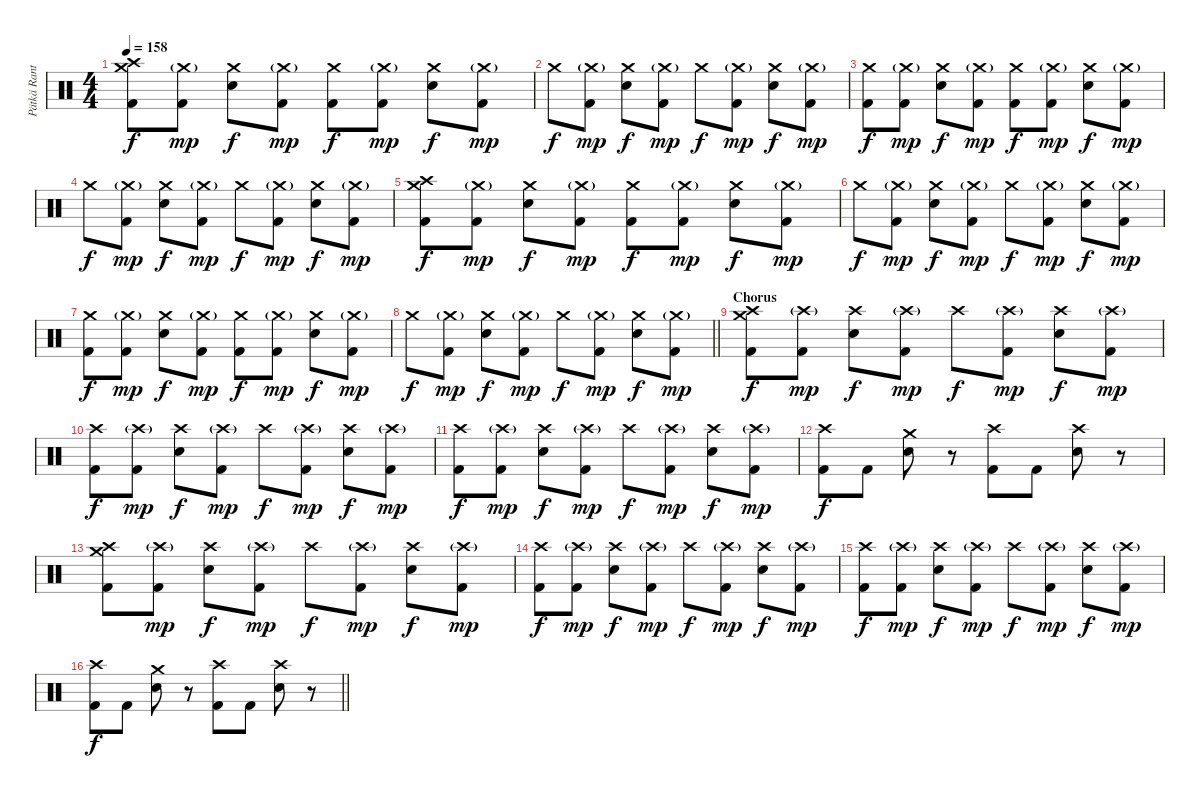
\track ("Pätkä Rantala (Drums)" "Pätkä Rant") {instrument percussion}
\staff {score}
\articulation defaults
\ts (4 4)
\tempo 158
\clef neutral
\ks c
("Crash high (hit)" "Crash medium (hit)" "Kick (hit) 2").8{dy f} ("Crash medium (hit)"{g} "Kick (hit) 2").8{dy mp} ("Crash medium (hit)" "Snare (hit) 2").8{dy f} ("Crash medium (hit)"{g} "Kick (hit) 2").8{dy mp} ("Crash medium (hit)" "Kick (hit) 2").8{dy f} ("Crash medium (hit)"{g} "Kick (hit) 2").8{dy mp} ("Crash medium (hit)" "Snare (hit) 2").8{dy f} ("Crash medium (hit)"{g} "Kick (hit) 2").8{dy mp} |
"Crash medium (hit)".8{dy f} ("Crash medium (hit)"{g} "Kick (hit) 2").8{dy mp} ("Crash medium (hit)" "Snare (hit) 2").8{dy f} ("Crash medium (hit)"{g} "Kick (hit) 2").8{dy mp} "Crash medium (hit)".8{dy f} ("Crash medium (hit)"{g} "Kick (hit) 2").8{dy mp} ("Crash medium (hit)" "Snare (hit) 2").8{dy f} ("Crash medium (hit)"{g} "Kick (hit) 2").8{dy mp} |
("Crash medium (hit)" "Kick (hit) 2").8{dy f} ("Crash medium (hit)"{g} "Kick (hit) 2").8{dy mp} ("Crash medium (hit)" "Snare (hit) 2").8{dy f} ("Crash medium (hit)"{g} "Kick (hit) 2").8{dy mp} ("Crash medium (hit)" "Kick (hit) 2").8{dy f} ("Crash medium (hit)"{g} "Kick (hit) 2").8{dy mp} ("Crash medium (hit)" "Snare (hit) 2").8{dy f} ("Crash medium (hit)"{g} "Kick (hit) 2").8{dy mp} |
"Crash medium (hit)".8{dy f} ("Crash medium (hit)"{g} "Kick (hit) 2").8{dy mp} ("Crash medium (hit)" "Snare (hit) 2").8{dy f} ("Crash medium (hit)"{g} "Kick (hit) 2").8{dy mp} "Crash medium (hit)".8{dy f} ("Crash medium (hit)"{g} "Kick (hit) 2").8{dy mp} ("Crash medium (hit)" "Snare (hit) 2").8{dy f} ("Crash medium (hit)"{g} "Kick (hit) 2").8{dy mp} |
("Crash high (hit)" "Crash medium (hit)" "Kick (hit) 2").8{dy f} ("Crash medium (hit)"{g} "Kick (hit) 2").8{dy mp} ("Crash medium (hit)" "Snare (hit) 2").8{dy f} ("Crash medium (hit)"{g} "Kick (hit) 2").8{dy mp} ("Crash medium (hit)" "Kick (hit) 2").8{dy f} ("Crash medium (hit)"{g} "Kick (hit) 2").8{dy mp} ("Crash medium (hit)" "Snare (hit) 2").8{dy f} ("Crash medium (hit)"{g} "Kick (hit) 2").8{dy mp} |
"Crash medium (hit)".8{dy f} ("Crash medium (hit)"{g} "Kick (hit) 2").8{dy mp} ("Crash medium (hit)" "Snare (hit) 2").8{dy f} ("Crash medium (hit)"{g} "Kick (hit) 2").8{dy mp} "Crash medium (hit)".8{dy f} ("Crash medium (hit)"{g} "Kick (hit) 2").8{dy mp} ("Crash medium (hit)" "Snare (hit) 2").8{dy f} ("Crash medium (hit)"{g} "Kick (hit) 2").8{dy mp} |
("Crash medium (hit)" "Kick (hit) 2").8{dy f} ("Crash medium (hit)"{g} "Kick (hit) 2").8{dy mp} ("Crash medium (hit)" "Snare (hit) 2").8{dy f} ("Crash medium (hit)"{g} "Kick (hit) 2").8{dy mp} ("Crash medium (hit)" "Kick (hit) 2").8{dy f} ("Crash medium (hit)"{g} "Kick (hit) 2").8{dy mp} ("Crash medium (hit)" "Snare (hit) 2").8{dy f} ("Crash medium (hit)"{g} "Kick (hit) 2").8{dy mp} |
\barLineRight lightlight "Crash medium (hit)".8{dy f}
("Crash medium (hit)"{g} "Kick (hit) 2").8{dy mp} ("Crash medium (hit)" "Snare (hit) 2").8{dy f} ("Crash medium (hit)"{g} "Kick (hit) 2").8{dy mp} "Crash medium (hit)".8{dy f} ("Crash medium (hit)"{g} "Kick (hit) 2").8{dy mp} ("Crash medium (hit)" "Snare (hit) 2").8{dy f} ("Crash medium (hit)"{g} "Kick (hit) 2").8{dy mp} |
\section ("" "Chorus")
("Crash medium (hit)" "Crash high (hit)" "Kick (hit) 2").8{dy f} ("Crash high (hit)"{g} "Kick (hit) 2").8{dy mp} ("Crash high (hit)" "Snare (hit) 2").8{dy f} ("Crash high (hit)"{g} "Kick (hit) 2").8{dy mp} "Crash high (hit)".8{dy f} ("Crash high (hit)"{g} "Kick (hit) 2").8{dy mp} ("Crash high (hit)" "Snare (hit) 2").8{dy f} ("Crash high (hit)"{g} "Kick (hit) 2").8{dy mp} |
("Crash high (hit)" "Kick (hit) 2").8{dy f} ("Crash high (hit)"{g} "Kick (hit) 2").8{dy mp} ("Crash high (hit)" "Snare (hit) 2").8{dy f} ("Crash high (hit)"{g} "Kick (hit) 2").8{dy mp} "Crash high (hit)".8{dy f} ("Crash high (hit)"{g} "Kick (hit) 2").8{dy mp} ("Crash high (hit)" "Snare (hit) 2").8{dy f} ("Crash high (hit)"{g} "Kick (hit) 2").8{dy mp} |
("Crash high (hit)" "Kick (hit) 2").8{dy f} ("Crash high (hit)"{g} "Kick (hit) 2").8{dy mp} ("Crash high (hit)" "Snare (hit) 2").8{dy f} ("Crash high (hit)"{g} "Kick (hit) 2").8{dy mp} "Crash high (hit)".8{dy f} ("Crash high (hit)"{g} "Kick (hit) 2").8{dy mp} ("Crash high (hit)" "Snare (hit) 2").8{dy f} ("Crash high (hit)"{g} "Kick (hit) 2").8{dy mp} |
("Crash high (hit)" "Kick (hit) 2").8{dy f} "Kick (hit) 2".8 ("Crash medium (hit)" "Snare (hit) 2").8 r.8 ("Crash high (hit)" "Kick (hit) 2").8 "Kick (hit) 2".8 ("Crash high (hit)" "Snare (hit) 2").8 r.8 |
("Crash medium (hit)" "Crash high (hit)" "Kick (hit) 2").8 ("Crash high (hit)"{g} "Kick (hit) 2").8{dy mp} ("Crash high (hit)" "Snare (hit) 2").8{dy f} ("Crash high (hit)"{g} "Kick (hit) 2").8{dy mp} "Crash high (hit)".8{dy f} ("Crash high (hit)"{g} "Kick (hit) 2").8{dy mp} ("Crash high (hit)" "Snare (hit) 2").8{dy f} ("Crash high (hit)"{g} "Kick (hit) 2").8{dy mp} |
("Crash high (hit)" "Kick (hit) 2").8{dy f} ("Crash high (hit)"{g} "Kick (hit) 2").8{dy mp} ("Crash high (hit)" "Snare (hit) 2").8{dy f} ("Crash high (hit)"{g} "Kick (hit) 2").8{dy mp} "Crash high (hit)".8{dy f} ("Crash high (hit)"{g} "Kick (hit) 2").8{dy mp} ("Crash high (hit)" "Snare (hit) 2").8{dy f} ("Crash high (hit)"{g} "Kick (hit) 2").8{dy mp} |
("Crash high (hit)" "Kick (hit) 2").8{dy f} ("Crash high (hit)"{g} "Kick (hit) 2").8{dy mp} ("Crash high (hit)" "Snare (hit) 2").8{dy f} ("Crash high (hit)"{g} "Kick (hit) 2").8{dy mp} "Crash high (hit)".8{dy f} ("Crash high (hit)"{g} "Kick (hit) 2").8{dy mp} ("Crash high (hit)" "Snare (hit) 2").8{dy f} ("Crash high (hit)"{g} "Kick (hit) 2").8{dy mp} |
\barLineRight lightlight
("Crash high (hit)" "Kick (hit) 2").8{dy f} "Kick (hit) 2".8 ("Crash medium (hit)" "Snare (hit) 2").8 r.8 ("Crash high (hit)" "Kick (hit) 2").8 "Kick (hit) 2".8 ("Crash high (hit)" "Snare (hit) 2").8 r.8
